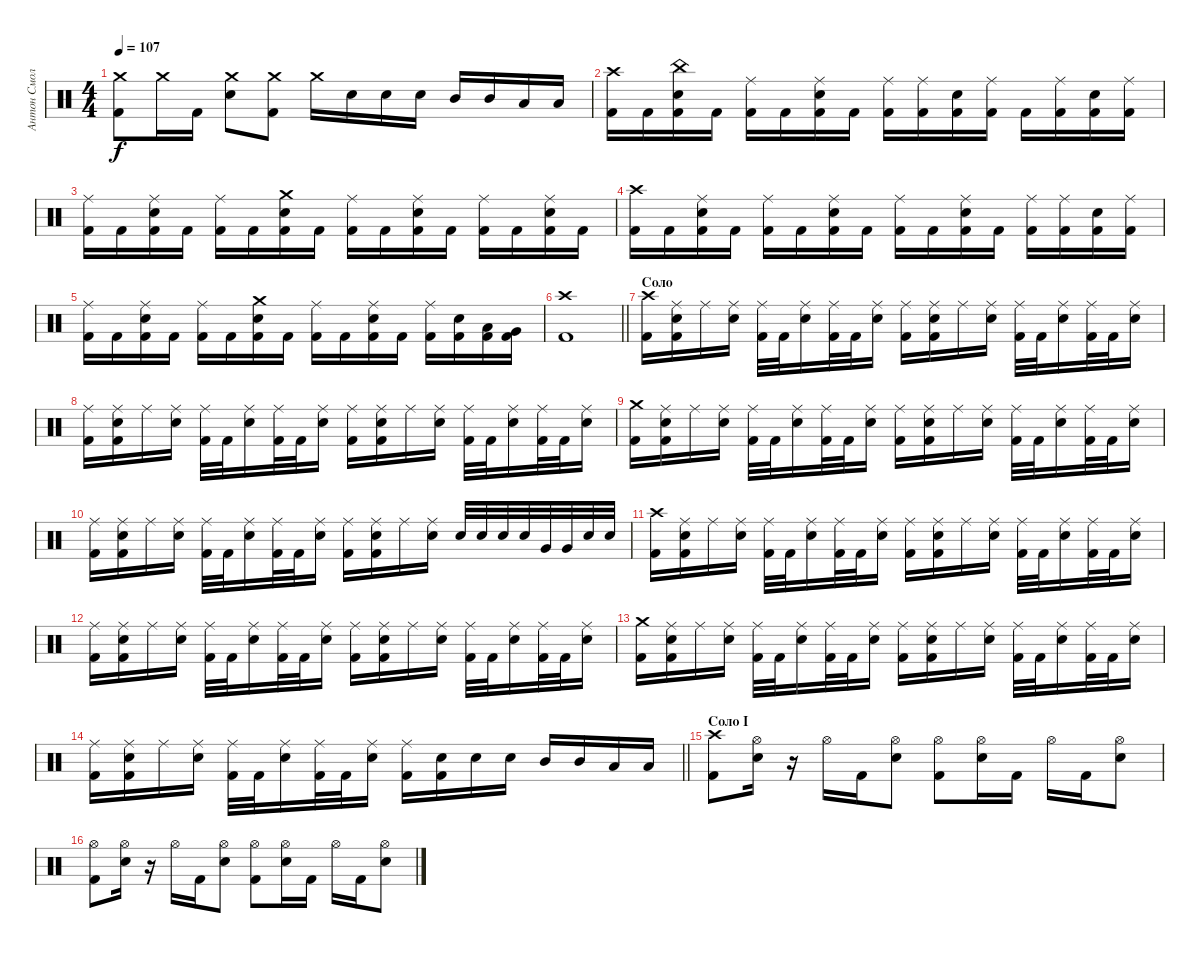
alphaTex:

\track ("Антон Смольянин" "Антон Смол") {instrument percussion}
\staff {score}
\articulation defaults
\ts (4 4)
\tempo 107
\clef neutral
\ks c
("Crash medium (hit)" "Kick (hit) 2").8{dy f} "Crash medium (hit)".16 "Kick (hit) 2".16 ("Crash medium (hit)" "Electric Snare (hit)").8 ("Crash medium (hit)" "Kick (hit) 2").8 "Crash medium (hit)".16 "Electric Snare (hit)".16 "Electric Snare (hit)".16 "Electric Snare (hit)".16 "Mid Tom (hit)".16 "Mid Tom (hit)".16 "Low Tom (hit)".16 "Low Tom (hit)".16 |
("Crash high (hit)" "Kick (hit) 2").16 "Kick (hit) 2".16 ("China (hit)" "Electric Snare (hit)" "Kick (hit) 2").16 "Kick (hit) 2".16 ("Ride (middle)" "Kick (hit) 2").16 "Kick (hit) 2".16 ("Ride (middle)" "Electric Snare (hit)" "Kick (hit) 2").16 "Kick (hit) 2".16 ("Ride (middle)" "Kick (hit) 2").16 ("Ride (middle)" "Kick (hit) 2").16 ("Electric Snare (hit)" "Kick (hit) 2").16 ("Ride (middle)" "Kick (hit) 2").16 "Kick (hit) 2".16 ("Ride (middle)" "Kick (hit) 2").16 ("Electric Snare (hit)" "Kick (hit) 2").16 ("Ride (middle)" "Kick (hit) 2").16 |
("Ride (middle)" "Kick (hit) 2").16 "Kick (hit) 2".16 ("Ride (middle)" "Electric Snare (hit)" "Kick (hit) 2").16 "Kick (hit) 2".16 ("Ride (middle)" "Kick (hit) 2").16 "Kick (hit) 2".16 ("Crash medium (hit)" "Electric Snare (hit)" "Kick (hit) 2").16 "Kick (hit) 2".16 ("Ride (middle)" "Kick (hit) 2").16 "Kick (hit) 2".16 ("Ride (middle)" "Electric Snare (hit)" "Kick (hit) 2").16 "Kick (hit) 2".16 ("Ride (middle)" "Kick (hit) 2").16 "Kick (hit) 2".16 ("Ride (middle)" "Electric Snare (hit)" "Kick (hit) 2").16 "Kick (hit) 2".16 |
("Crash high (hit)" "Kick (hit) 2").16 "Kick (hit) 2".16 ("Ride (middle)" "Electric Snare (hit)" "Kick (hit) 2").16 "Kick (hit) 2".16 ("Ride (middle)" "Kick (hit) 2").16 "Kick (hit) 2".16 ("Ride (middle)" "Electric Snare (hit)" "Kick (hit) 2").16 "Kick (hit) 2".16 ("Ride (middle)" "Kick (hit) 2").16 "Kick (hit) 2".16 ("Ride (middle)" "Electric Snare (hit)" "Kick (hit) 2").16 "Kick (hit) 2".16 ("Ride (middle)" "Kick (hit) 2").16 ("Ride (middle)" "Kick (hit) 2").16 ("Electric Snare (hit)" "Kick (hit) 2").16 ("Ride (middle)" "Kick (hit) 2").16 |
("Ride (middle)" "Kick (hit) 2").16 "Kick (hit) 2".16 ("Ride (middle)" "Electric Snare (hit)" "Kick (hit) 2").16 "Kick (hit) 2".16 ("Ride (middle)" "Kick (hit) 2").16 "Kick (hit) 2".16 ("Crash medium (hit)" "Electric Snare (hit)" "Kick (hit) 2").16 "Kick (hit) 2".16 ("Ride (middle)" "Kick (hit) 2").16 "Kick (hit) 2".16 ("Ride (middle)" "Electric Snare (hit)" "Kick (hit) 2").16 "Kick (hit) 2".16 ("Ride (middle)" "Kick (hit) 2").16 ("Electric Snare (hit)" "Kick (hit) 2").16 ("Low Tom (hit)" "Kick (hit) 2").16 ("Very Low Tom (hit)" "Kick (hit) 2").16 |
\barLineRight lightlight
("Crash high (hit)" "Kick (hit) 2").1 |
\section ("" "Соло")
("Crash high (hit)" "Kick (hit) 2").16 ("Ride (middle)" "Electric Snare (hit)" "Kick (hit) 2").16 "Ride (middle)".16 ("Ride (middle)" "Electric Snare (hit)").16 ("Ride (middle)" "Kick (hit) 2").32 "Kick (hit) 2".32 ("Ride (middle)" "Electric Snare (hit)").16 ("Ride (middle)" "Kick (hit) 2").32 "Kick (hit) 2".32 ("Ride (middle)" "Electric Snare (hit)").16 ("Ride (middle)" "Kick (hit) 2").16 ("Ride (middle)" "Electric Snare (hit)" "Kick (hit) 2").16 "Ride (middle)".16 ("Ride (middle)" "Electric Snare (hit)").16 ("Ride (middle)" "Kick (hit) 2").32 "Kick (hit) 2".32 ("Ride (middle)" "Electric Snare (hit)").16 ("Ride (middle)" "Kick (hit) 2").32 "Kick (hit) 2".32 ("Ride (middle)" "Electric Snare (hit)").16 |
("Ride (middle)" "Kick (hit) 2").16 ("Ride (middle)" "Electric Snare (hit)" "Kick (hit) 2").16 "Ride (middle)".16 ("Ride (middle)" "Electric Snare (hit)").16 ("Ride (middle)" "Kick (hit) 2").32 "Kick (hit) 2".32 ("Ride (middle)" "Electric Snare (hit)").16 ("Ride (middle)" "Kick (hit) 2").32 "Kick (hit) 2".32 ("Ride (middle)" "Electric Snare (hit)").16 ("Ride (middle)" "Kick (hit) 2").16 ("Ride (middle)" "Electric Snare (hit)" "Kick (hit) 2").16 "Ride (middle)".16 ("Ride (middle)" "Electric Snare (hit)").16 ("Ride (middle)" "Kick (hit) 2").32 "Kick (hit) 2".32 ("Ride (middle)" "Electric Snare (hit)").16 ("Ride (middle)" "Kick (hit) 2").32 "Kick (hit) 2".32 ("Ride (middle)" "Electric Snare (hit)").16 |
("Crash medium (hit)" "Kick (hit) 2").16 ("Ride (middle)" "Electric Snare (hit)" "Kick (hit) 2").16 "Ride (middle)".16 ("Ride (middle)" "Electric Snare (hit)").16 ("Ride (middle)" "Kick (hit) 2").32 "Kick (hit) 2".32 ("Ride (middle)" "Electric Snare (hit)").16 ("Ride (middle)" "Kick (hit) 2").32 "Kick (hit) 2".32 ("Ride (middle)" "Electric Snare (hit)").16 ("Ride (middle)" "Kick (hit) 2").16 ("Ride (middle)" "Electric Snare (hit)" "Kick (hit) 2").16 "Ride (middle)".16 ("Ride (middle)" "Electric Snare (hit)").16 ("Ride (middle)" "Kick (hit) 2").32 "Kick (hit) 2".32 ("Ride (middle)" "Electric Snare (hit)").16 ("Ride (middle)" "Kick (hit) 2").32 "Kick (hit) 2".32 ("Ride (middle)" "Electric Snare (hit)").16 |
("Ride (middle)" "Kick (hit) 2").16 ("Ride (middle)" "Electric Snare (hit)" "Kick (hit) 2").16 "Ride (middle)".16 ("Ride (middle)" "Electric Snare (hit)").16 ("Ride (middle)" "Kick (hit) 2").32 "Kick (hit) 2".32 ("Ride (middle)" "Electric Snare (hit)").16 ("Ride (middle)" "Kick (hit) 2").32 "Kick (hit) 2".32 ("Ride (middle)" "Electric Snare (hit)").16 ("Ride (middle)" "Kick (hit) 2").16 ("Ride (middle)" "Electric Snare (hit)" "Kick (hit) 2").16 "Ride (middle)".16 ("Ride (middle)" "Electric Snare (hit)").16 "Electric Snare (hit)".32 "Electric Snare (hit)".32 "Electric Snare (hit)".32 "Electric Snare (hit)".32 "Very Low Tom (hit)".32 "Very Low Tom (hit)".32 "Electric Snare (hit)".32 "Electric Snare (hit)".32 |
("Crash high (hit)" "Kick (hit) 2").16 ("Ride (middle)" "Electric Snare (hit)" "Kick (hit) 2").16 "Ride (middle)".16 ("Ride (middle)" "Electric Snare (hit)").16 ("Ride (middle)" "Kick (hit) 2").32 "Kick (hit) 2".32 ("Ride (middle)" "Electric Snare (hit)").16 ("Ride (middle)" "Kick (hit) 2").32 "Kick (hit) 2".32 ("Ride (middle)" "Electric Snare (hit)").16 ("Ride (middle)" "Kick (hit) 2").16 ("Ride (middle)" "Electric Snare (hit)" "Kick (hit) 2").16 "Ride (middle)".16 ("Ride (middle)" "Electric Snare (hit)").16 ("Ride (middle)" "Kick (hit) 2").32 "Kick (hit) 2".32 ("Ride (middle)" "Electric Snare (hit)").16 ("Ride (middle)" "Kick (hit) 2").32 "Kick (hit) 2".32 ("Ride (middle)" "Electric Snare (hit)").16 |
("Ride (middle)" "Kick (hit) 2").16 ("Ride (middle)" "Electric Snare (hit)" "Kick (hit) 2").16 "Ride (middle)".16 ("Ride (middle)" "Electric Snare (hit)").16 ("Ride (middle)" "Kick (hit) 2").32 "Kick (hit) 2".32 ("Ride (middle)" "Electric Snare (hit)").16 ("Ride (middle)" "Kick (hit) 2").32 "Kick (hit) 2".32 ("Ride (middle)" "Electric Snare (hit)").16 ("Ride (middle)" "Kick (hit) 2").16 ("Ride (middle)" "Electric Snare (hit)" "Kick (hit) 2").16 "Ride (middle)".16 ("Ride (middle)" "Electric Snare (hit)").16 ("Ride (middle)" "Kick (hit) 2").32 "Kick (hit) 2".32 ("Ride (middle)" "Electric Snare (hit)").16 ("Ride (middle)" "Kick (hit) 2").32 "Kick (hit) 2".32 ("Ride (middle)" "Electric Snare (hit)").16 |
("Crash medium (hit)" "Kick (hit) 2").16 ("Ride (middle)" "Electric Snare (hit)" "Kick (hit) 2").16 "Ride (middle)".16 ("Ride (middle)" "Electric Snare (hit)").16 ("Ride (middle)" "Kick (hit) 2").32 "Kick (hit) 2".32 ("Ride (middle)" "Electric Snare (hit)").16 ("Ride (middle)" "Kick (hit) 2").32 "Kick (hit) 2".32 ("Ride (middle)" "Electric Snare (hit)").16 ("Ride (middle)" "Kick (hit) 2").16 ("Ride (middle)" "Electric Snare (hit)" "Kick (hit) 2").16 "Ride (middle)".16 ("Ride (middle)" "Electric Snare (hit)").16 ("Ride (middle)" "Kick (hit) 2").32 "Kick (hit) 2".32 ("Ride (middle)" "Electric Snare (hit)").16 ("Ride (middle)" "Kick (hit) 2").32 "Kick (hit) 2".32 ("Ride (middle)" "Electric Snare (hit)").16 |
\barLineRight lightlight
("Ride (middle)" "Kick (hit) 2").16 ("Ride (middle)" "Electric Snare (hit)" "Kick (hit) 2").16 "Ride (middle)".16 ("Ride (middle)" "Electric Snare (hit)").16 ("Ride (middle)" "Kick (hit) 2").32 "Kick (hit) 2".32 ("Ride (middle)" "Electric Snare (hit)").16 ("Ride (middle)" "Kick (hit) 2").32 "Kick (hit) 2".32 ("Ride (middle)" "Electric Snare (hit)").16 ("Ride (middle)" "Kick (hit) 2").16 ("Electric Snare (hit)" "Kick (hit) 2").16 "Electric Snare (hit)".16 "Electric Snare (hit)".16 "Mid Tom (hit)".16 "Mid Tom (hit)".16 "Low Tom (hit)".16 "Low Tom (hit)".16 |
\section ("" "Соло I")
("Crash high (hit)" "Kick (hit) 2").8 ("Hi-Hat (open)" "Electric Snare (hit)").16 r.16 "Hi-Hat (open)".16 "Kick (hit) 2".16 ("Hi-Hat (open)" "Electric Snare (hit)").8 ("Hi-Hat (open)" "Kick (hit) 2").8 ("Hi-Hat (open)" "Electric Snare (hit)").16 "Kick (hit) 2".16 "Hi-Hat (open)".16 "Kick (hit) 2".16 ("Hi-Hat (open)" "Electric Snare (hit)").8 |
("Hi-Hat (open)" "Kick (hit) 2").8 ("Hi-Hat (open)" "Electric Snare (hit)").16 r.16 "Hi-Hat (open)".16 "Kick (hit) 2".16 ("Hi-Hat (open)" "Electric Snare (hit)").8 ("Hi-Hat (open)" "Kick (hit) 2").8 ("Hi-Hat (open)" "Electric Snare (hit)").16 "Kick (hit) 2".16 "Hi-Hat (open)".16 "Kick (hit) 2".16 ("Hi-Hat (open)" "Electric Snare (hit)").8
